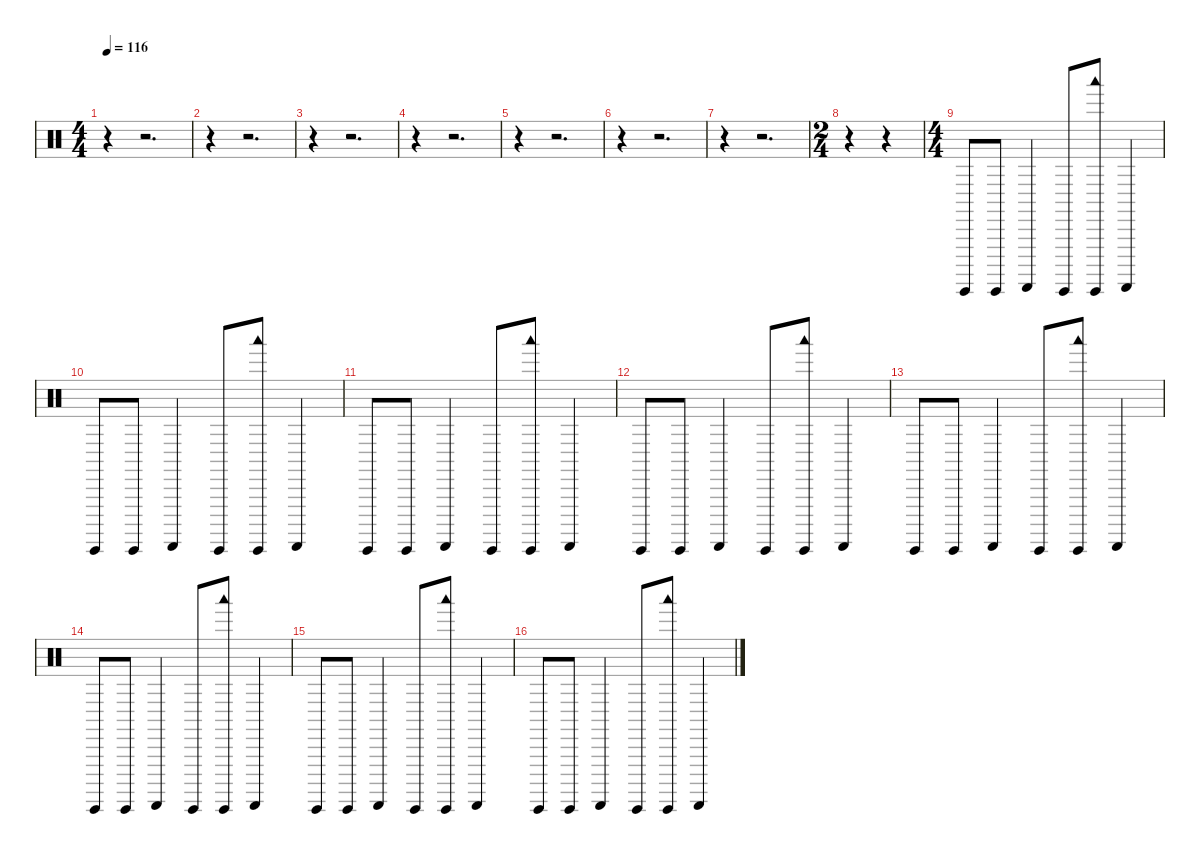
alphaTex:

\defaultSystemsLayout 4
\hideDynamics
\bracketExtendMode nobrackets
\singleTrackTrackNamePolicy hidden
\multiTrackTrackNamePolicy hidden
\firstSystemTrackNameMode fullname
\firstSystemTrackNameOrientation horizontal
\otherSystemsTrackNameOrientation horizontal
\track ("Percussions" "drm.") {instrument percussion}
\staff {score}
\articulation defaults
\ts (4 4)
\tempo 116
\clef neutral
\ks c
r.4{dy f beam Down} r.2{d beam Down} |
r.4{beam Down} r.2{d beam Down} |
r.4{beam Down} r.2{d beam Down} |
r.4{beam Down} r.2{d beam Down} |
r.4{beam Down} r.2{d beam Down} |
r.4{beam Down} r.2{d beam Down} |
r.4{beam Down} r.2{d beam Down} |
\ts (2 4)
r.4{beam Down} r.4{beam Down} |
\ts (4 4)
"Guiro (hit)".8{beam Up} "Guiro (hit)".8{beam Up} "Guiro (scrap-return)".4{beam Up} "Guiro (hit)".8{beam Up} ("Guiro (hit)" "Woodblock low (hit)").8{beam Up} "Guiro (scrap-return)".4{beam Up} |
"Guiro (hit)".8{beam Up} "Guiro (hit)".8{beam Up} "Guiro (scrap-return)".4{beam Up} "Guiro (hit)".8{beam Up} ("Guiro (hit)" "Woodblock low (hit)").8{beam Up} "Guiro (scrap-return)".4{beam Up} |
"Guiro (hit)".8{beam Up} "Guiro (hit)".8{beam Up} "Guiro (scrap-return)".4{beam Up} "Guiro (hit)".8{beam Up} ("Guiro (hit)" "Woodblock low (hit)").8{beam Up} "Guiro (scrap-return)".4{beam Up} |
"Guiro (hit)".8{beam Up} "Guiro (hit)".8{beam Up} "Guiro (scrap-return)".4{beam Up} "Guiro (hit)".8{beam Up} ("Guiro (hit)" "Woodblock low (hit)").8{beam Up} "Guiro (scrap-return)".4{beam Up} |
"Guiro (hit)".8{beam Up} "Guiro (hit)".8{beam Up} "Guiro (scrap-return)".4{beam Up} "Guiro (hit)".8{beam Up} ("Guiro (hit)" "Woodblock low (hit)").8{beam Up} "Guiro (scrap-return)".4{beam Up} |
"Guiro (hit)".8{beam Up} "Guiro (hit)".8{beam Up} "Guiro (scrap-return)".4{beam Up} "Guiro (hit)".8{beam Up} ("Guiro (hit)" "Woodblock low (hit)").8{beam Up} "Guiro (scrap-return)".4{beam Up} |
"Guiro (hit)".8{beam Up} "Guiro (hit)".8{beam Up} "Guiro (scrap-return)".4{beam Up} "Guiro (hit)".8{beam Up} ("Guiro (hit)" "Woodblock low (hit)").8{beam Up} "Guiro (scrap-return)".4{beam Up} |
"Guiro (hit)".8{beam Up} "Guiro (hit)".8{beam Up} "Guiro (scrap-return)".4{beam Up} "Guiro (hit)".8{beam Up} ("Guiro (hit)" "Woodblock low (hit)").8{beam Up} "Guiro (scrap-return)".4{beam Up}
